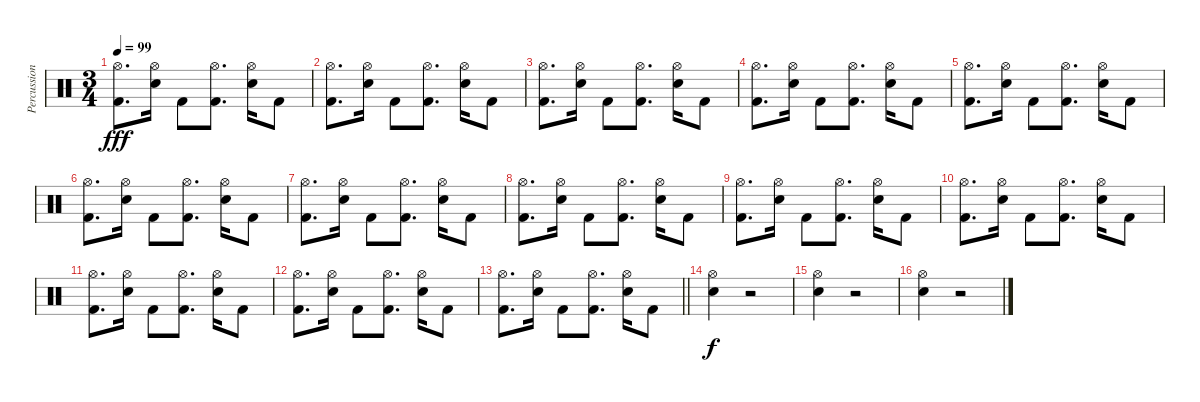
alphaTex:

\track ("Percussion" "Percussion") {instrument percussion}
\staff {score}
\articulation defaults
\ts (3 4)
\tempo 99
\clef neutral
\ks c
("Hi-Hat (open)" "Kick (hit) 2").8{d dy fff} ("Hi-Hat (open)" "Electric Snare (hit)").16 "Kick (hit) 2".8 ("Hi-Hat (open)" "Kick (hit) 2").8{d} ("Hi-Hat (open)" "Electric Snare (hit)").16 "Kick (hit) 2".8 |
("Hi-Hat (open)" "Kick (hit) 2").8{d} ("Hi-Hat (open)" "Electric Snare (hit)").16 "Kick (hit) 2".8 ("Hi-Hat (open)" "Kick (hit) 2").8{d} ("Hi-Hat (open)" "Electric Snare (hit)").16 "Kick (hit) 2".8 |
("Hi-Hat (open)" "Kick (hit) 2").8{d} ("Hi-Hat (open)" "Electric Snare (hit)").16 "Kick (hit) 2".8 ("Hi-Hat (open)" "Kick (hit) 2").8{d} ("Hi-Hat (open)" "Electric Snare (hit)").16 "Kick (hit) 2".8 |
("Hi-Hat (open)" "Kick (hit) 2").8{d} ("Hi-Hat (open)" "Electric Snare (hit)").16 "Kick (hit) 2".8 ("Hi-Hat (open)" "Kick (hit) 2").8{d} ("Hi-Hat (open)" "Electric Snare (hit)").16 "Kick (hit) 2".8 |
("Hi-Hat (open)" "Kick (hit) 2").8{d} ("Hi-Hat (open)" "Electric Snare (hit)").16 "Kick (hit) 2".8 ("Hi-Hat (open)" "Kick (hit) 2").8{d} ("Hi-Hat (open)" "Electric Snare (hit)").16 "Kick (hit) 2".8 |
("Hi-Hat (open)" "Kick (hit) 2").8{d} ("Hi-Hat (open)" "Electric Snare (hit)").16 "Kick (hit) 2".8 ("Hi-Hat (open)" "Kick (hit) 2").8{d} ("Hi-Hat (open)" "Electric Snare (hit)").16 "Kick (hit) 2".8 |
("Hi-Hat (open)" "Kick (hit) 2").8{d} ("Hi-Hat (open)" "Electric Snare (hit)").16 "Kick (hit) 2".8 ("Hi-Hat (open)" "Kick (hit) 2").8{d} ("Hi-Hat (open)" "Electric Snare (hit)").16 "Kick (hit) 2".8 |
("Hi-Hat (open)" "Kick (hit) 2").8{d} ("Hi-Hat (open)" "Electric Snare (hit)").16 "Kick (hit) 2".8 ("Hi-Hat (open)" "Kick (hit) 2").8{d} ("Hi-Hat (open)" "Electric Snare (hit)").16 "Kick (hit) 2".8 |
("Hi-Hat (open)" "Kick (hit) 2").8{d} ("Hi-Hat (open)" "Electric Snare (hit)").16 "Kick (hit) 2".8 ("Hi-Hat (open)" "Kick (hit) 2").8{d} ("Hi-Hat (open)" "Electric Snare (hit)").16 "Kick (hit) 2".8 |
("Hi-Hat (open)" "Kick (hit) 2").8{d} ("Hi-Hat (open)" "Electric Snare (hit)").16 "Kick (hit) 2".8 ("Hi-Hat (open)" "Kick (hit) 2").8{d} ("Hi-Hat (open)" "Electric Snare (hit)").16 "Kick (hit) 2".8 |
("Hi-Hat (open)" "Kick (hit) 2").8{d} ("Hi-Hat (open)" "Electric Snare (hit)").16 "Kick (hit) 2".8 ("Hi-Hat (open)" "Kick (hit) 2").8{d} ("Hi-Hat (open)" "Electric Snare (hit)").16 "Kick (hit) 2".8 |
("Hi-Hat (open)" "Kick (hit) 2").8{d} ("Hi-Hat (open)" "Electric Snare (hit)").16 "Kick (hit) 2".8 ("Hi-Hat (open)" "Kick (hit) 2").8{d} ("Hi-Hat (open)" "Electric Snare (hit)").16 "Kick (hit) 2".8 |
\barLineRight lightlight
("Hi-Hat (open)" "Kick (hit) 2").8{d} ("Hi-Hat (open)" "Electric Snare (hit)").16 "Kick (hit) 2".8 ("Hi-Hat (open)" "Kick (hit) 2").8{d} ("Hi-Hat (open)" "Electric Snare (hit)").16 "Kick (hit) 2".8 |
("Hi-Hat (open)" "Electric Snare (hit)").4{dy f} r.2 |
("Hi-Hat (open)" "Electric Snare (hit)").4 r.2 |
("Hi-Hat (open)" "Electric Snare (hit)").4 r.2
